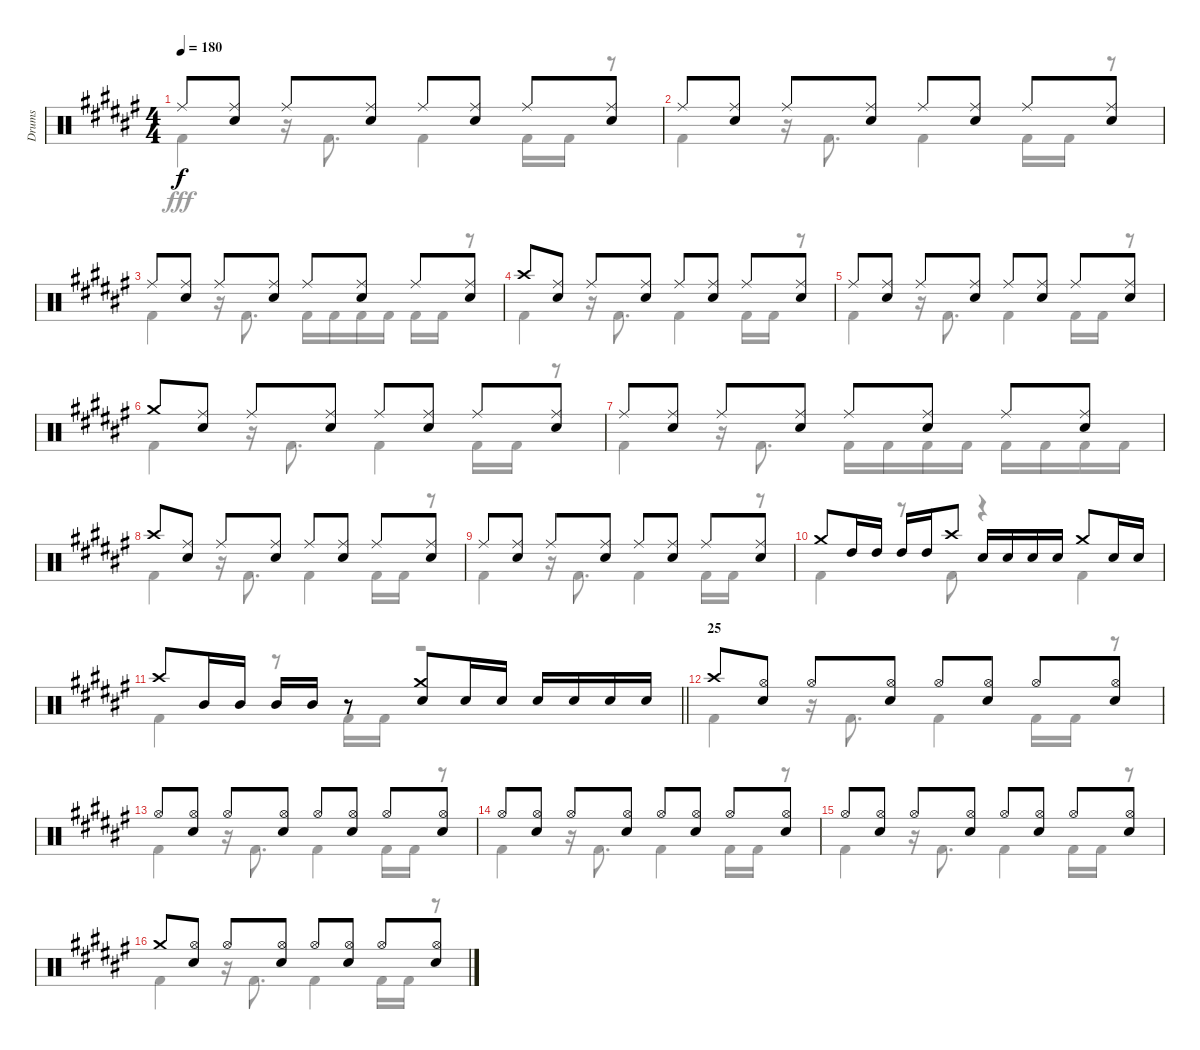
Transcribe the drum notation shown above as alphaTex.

\track ("Drums" "Drums") {instrument percussion}
\staff {score}
\articulation defaults
\voice
\ts (4 4)
\tempo 180
\clef neutral
\ks f# "Ride (middle)".8{dy f}
("Ride (middle)" "Snare (hit) 2").8 "Ride (middle)".8 ("Ride (middle)" "Snare (hit) 2").8 "Ride (middle)".8 ("Ride (middle)" "Snare (hit) 2").8 "Ride (middle)".8 ("Ride (middle)" "Snare (hit) 2").8 |
"Ride (middle)".8 ("Ride (middle)" "Snare (hit) 2").8 "Ride (middle)".8 ("Ride (middle)" "Snare (hit) 2").8 "Ride (middle)".8 ("Ride (middle)" "Snare (hit) 2").8 "Ride (middle)".8 ("Ride (middle)" "Snare (hit) 2").8 |
"Ride (middle)".8 ("Ride (middle)" "Snare (hit) 2").8 "Ride (middle)".8 ("Ride (middle)" "Snare (hit) 2").8 "Ride (middle)".8 ("Ride (middle)" "Snare (hit) 2").8 "Ride (middle)".8 ("Ride (middle)" "Snare (hit) 2").8 |
"Crash high (hit)".8 ("Ride (middle)" "Snare (hit) 2").8 "Ride (middle)".8 ("Ride (middle)" "Snare (hit) 2").8 "Ride (middle)".8 ("Ride (middle)" "Snare (hit) 2").8 "Ride (middle)".8 ("Ride (middle)" "Snare (hit) 2").8 |
"Ride (middle)".8 ("Ride (middle)" "Snare (hit) 2").8 "Ride (middle)".8 ("Ride (middle)" "Snare (hit) 2").8 "Ride (middle)".8 ("Ride (middle)" "Snare (hit) 2").8 "Ride (middle)".8 ("Ride (middle)" "Snare (hit) 2").8 |
"Crash medium (hit)".8 ("Ride (middle)" "Snare (hit) 2").8 "Ride (middle)".8 ("Ride (middle)" "Snare (hit) 2").8 "Ride (middle)".8 ("Ride (middle)" "Snare (hit) 2").8 "Ride (middle)".8 ("Ride (middle)" "Snare (hit) 2").8 |
"Ride (middle)".8 ("Ride (middle)" "Snare (hit) 2").8 "Ride (middle)".8 ("Ride (middle)" "Snare (hit) 2").8 "Ride (middle)".8 ("Ride (middle)" "Snare (hit) 2").8 "Ride (middle)".8 ("Ride (middle)" "Snare (hit) 2").8 |
"Crash high (hit)".8 ("Ride (middle)" "Snare (hit) 2").8 "Ride (middle)".8 ("Ride (middle)" "Snare (hit) 2").8 "Ride (middle)".8 ("Ride (middle)" "Snare (hit) 2").8 "Ride (middle)".8 ("Ride (middle)" "Snare (hit) 2").8 |
"Ride (middle)".8 ("Ride (middle)" "Snare (hit) 2").8 "Ride (middle)".8 ("Ride (middle)" "Snare (hit) 2").8 "Ride (middle)".8 ("Ride (middle)" "Snare (hit) 2").8 "Ride (middle)".8 ("Ride (middle)" "Snare (hit) 2").8 |
"Crash medium (hit)".8 "High Tom (hit)".16 "High Tom (hit)".16 "High Tom (hit)".16 "High Tom (hit)".16 "Crash high (hit)".8 "Snare (hit) 2".16 "Snare (hit) 2".16 "Snare (hit) 2".16 "Snare (hit) 2".16 "Crash medium (hit)".8 "Snare (hit) 2".16 "Snare (hit) 2".16 |
\barLineRight lightlight "Crash high (hit)".8 "Mid Tom (hit)".16 "Mid Tom (hit)".16 "Mid Tom (hit)".16 "Mid Tom (hit)".16
r.8 ("Crash medium (hit)" "Snare (hit) 2").8 "Snare (hit) 2".16 "Snare (hit) 2".16 "Snare (hit) 2".16 "Snare (hit) 2".16 "Snare (hit) 2".16 "Snare (hit) 2".16 |
\section ("" "25")
"Crash high (hit)".8 ("Hi-Hat (open)" "Snare (hit) 2").8 "Hi-Hat (open)".8 ("Hi-Hat (open)" "Snare (hit) 2").8 "Hi-Hat (open)".8 ("Hi-Hat (open)" "Snare (hit) 2").8 "Hi-Hat (open)".8 ("Hi-Hat (open)" "Snare (hit) 2").8 |
"Hi-Hat (open)".8 ("Hi-Hat (open)" "Snare (hit) 2").8 "Hi-Hat (open)".8 ("Hi-Hat (open)" "Snare (hit) 2").8 "Hi-Hat (open)".8 ("Hi-Hat (open)" "Snare (hit) 2").8 "Hi-Hat (open)".8 ("Hi-Hat (open)" "Snare (hit) 2").8 |
"Hi-Hat (open)".8 ("Hi-Hat (open)" "Snare (hit) 2").8 "Hi-Hat (open)".8 ("Hi-Hat (open)" "Snare (hit) 2").8 "Hi-Hat (open)".8 ("Hi-Hat (open)" "Snare (hit) 2").8 "Hi-Hat (open)".8 ("Hi-Hat (open)" "Snare (hit) 2").8 |
"Hi-Hat (open)".8 ("Hi-Hat (open)" "Snare (hit) 2").8 "Hi-Hat (open)".8 ("Hi-Hat (open)" "Snare (hit) 2").8 "Hi-Hat (open)".8 ("Hi-Hat (open)" "Snare (hit) 2").8 "Hi-Hat (open)".8 ("Hi-Hat (open)" "Snare (hit) 2").8 |
"Crash medium (hit)".8 ("Hi-Hat (open)" "Snare (hit) 2").8 "Hi-Hat (open)".8 ("Hi-Hat (open)" "Snare (hit) 2").8 "Hi-Hat (open)".8 ("Hi-Hat (open)" "Snare (hit) 2").8 "Hi-Hat (open)".8 ("Hi-Hat (open)" "Snare (hit) 2").8
\voice
\clef neutral
\ottava regular
\simile none
\ks f# "Kick (hit) 2".4{dy fff}
r.16 "Kick (hit) 2".8{d} "Kick (hit) 2".4 "Kick (hit) 2".16 "Kick (hit) 2".16 r.8 |
"Kick (hit) 2".4 r.16 "Kick (hit) 2".8{d} "Kick (hit) 2".4 "Kick (hit) 2".16 "Kick (hit) 2".16 r.8 |
"Kick (hit) 2".4 r.16 "Kick (hit) 2".8{d} "Kick (hit) 2".16 "Kick (hit) 2".16 "Kick (hit) 2".16 "Kick (hit) 2".16 "Kick (hit) 2".16 "Kick (hit) 2".16 r.8 |
"Kick (hit) 2".4 r.16 "Kick (hit) 2".8{d} "Kick (hit) 2".4 "Kick (hit) 2".16 "Kick (hit) 2".16 r.8 |
"Kick (hit) 2".4 r.16 "Kick (hit) 2".8{d} "Kick (hit) 2".4 "Kick (hit) 2".16 "Kick (hit) 2".16 r.8 |
"Kick (hit) 2".4 r.16 "Kick (hit) 2".8{d} "Kick (hit) 2".4 "Kick (hit) 2".16 "Kick (hit) 2".16 r.8 |
"Kick (hit) 2".4 r.16 "Kick (hit) 2".8{d} "Kick (hit) 2".16 "Kick (hit) 2".16 "Kick (hit) 2".16 "Kick (hit) 2".16 "Kick (hit) 2".16 "Kick (hit) 2".16 "Kick (hit) 2".16 "Kick (hit) 2".16 |
"Kick (hit) 2".4 r.16 "Kick (hit) 2".8{d} "Kick (hit) 2".4 "Kick (hit) 2".16 "Kick (hit) 2".16 r.8 |
"Kick (hit) 2".4 r.16 "Kick (hit) 2".8{d} "Kick (hit) 2".4 "Kick (hit) 2".16 "Kick (hit) 2".16 r.8 |
"Kick (hit) 2".4 r.8 "Kick (hit) 2".8 r.4 "Kick (hit) 2".4 |
\barLineRight lightlight "Kick (hit) 2".4
r.8 "Kick (hit) 2".16 "Kick (hit) 2".16 r.2 |
"Kick (hit) 2".4 r.16 "Kick (hit) 2".8{d} "Kick (hit) 2".4 "Kick (hit) 2".16 "Kick (hit) 2".16 r.8 |
"Kick (hit) 2".4 r.16 "Kick (hit) 2".8{d} "Kick (hit) 2".4 "Kick (hit) 2".16 "Kick (hit) 2".16 r.8 |
"Kick (hit) 2".4 r.16 "Kick (hit) 2".8{d} "Kick (hit) 2".4 "Kick (hit) 2".16 "Kick (hit) 2".16 r.8 |
"Kick (hit) 2".4 r.16 "Kick (hit) 2".8{d} "Kick (hit) 2".4 "Kick (hit) 2".16 "Kick (hit) 2".16 r.8 |
"Kick (hit) 2".4 r.16 "Kick (hit) 2".8{d} "Kick (hit) 2".4 "Kick (hit) 2".16 "Kick (hit) 2".16 r.8
